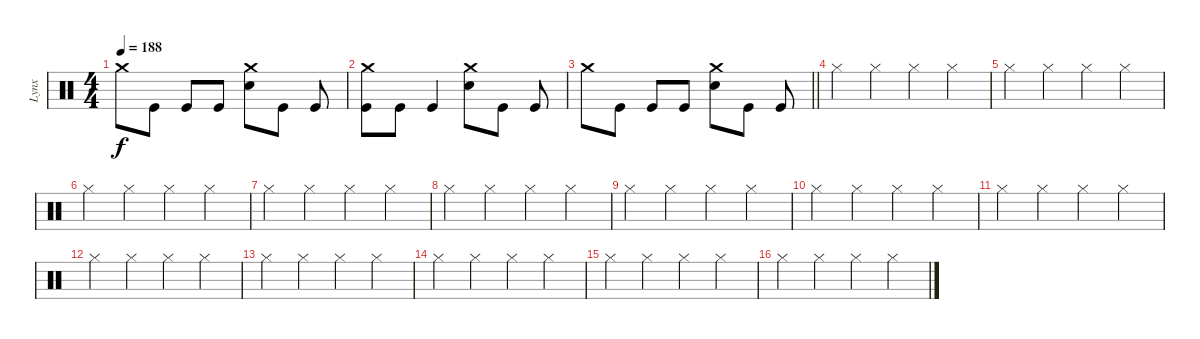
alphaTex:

\track ("Lynx" "Lynx") {instrument percussion}
\staff {score}
\articulation defaults
\ts (4 4)
\tempo 188
\clef neutral
\ks c "Crash medium (hit)".8{dy f} "Kick (hit)".8 "Kick (hit)".8 "Kick (hit)".8
("Electric Snare (hit)" "Crash medium (hit)").8 "Kick (hit)".8 "Kick (hit)".8 |
("Kick (hit)" "Crash medium (hit)").8 "Kick (hit)".8 "Kick (hit)".4 ("Electric Snare (hit)" "Crash medium (hit)").8 "Kick (hit)".8 "Kick (hit)".8 |
\barLineRight lightlight "Crash medium (hit)".8 "Kick (hit)".8 "Kick (hit)".8 "Kick (hit)".8
("Electric Snare (hit)" "Crash medium (hit)").8 "Kick (hit)".8 "Kick (hit)".8 |
\section ("" "")
"Hi-Hat (closed)".4 "Hi-Hat (closed)".4 "Hi-Hat (closed)".4 "Hi-Hat (closed)".4 |
"Hi-Hat (closed)".4 "Hi-Hat (closed)".4 "Hi-Hat (closed)".4 "Hi-Hat (closed)".4 |
"Hi-Hat (closed)".4 "Hi-Hat (closed)".4 "Hi-Hat (closed)".4 "Hi-Hat (closed)".4 |
"Hi-Hat (closed)".4 "Hi-Hat (closed)".4 "Hi-Hat (closed)".4 "Hi-Hat (closed)".4 |
"Hi-Hat (closed)".4 "Hi-Hat (closed)".4 "Hi-Hat (closed)".4 "Hi-Hat (closed)".4 |
"Hi-Hat (closed)".4 "Hi-Hat (closed)".4 "Hi-Hat (closed)".4 "Hi-Hat (closed)".4 |
"Hi-Hat (closed)".4 "Hi-Hat (closed)".4 "Hi-Hat (closed)".4 "Hi-Hat (closed)".4 |
"Hi-Hat (closed)".4 "Hi-Hat (closed)".4 "Hi-Hat (closed)".4 "Hi-Hat (closed)".4 |
"Hi-Hat (closed)".4 "Hi-Hat (closed)".4 "Hi-Hat (closed)".4 "Hi-Hat (closed)".4 |
"Hi-Hat (closed)".4 "Hi-Hat (closed)".4 "Hi-Hat (closed)".4 "Hi-Hat (closed)".4 |
"Hi-Hat (closed)".4 "Hi-Hat (closed)".4 "Hi-Hat (closed)".4 "Hi-Hat (closed)".4 |
"Hi-Hat (closed)".4 "Hi-Hat (closed)".4 "Hi-Hat (closed)".4 "Hi-Hat (closed)".4 |
"Hi-Hat (closed)".4 "Hi-Hat (closed)".4 "Hi-Hat (closed)".4 "Hi-Hat (closed)".4
